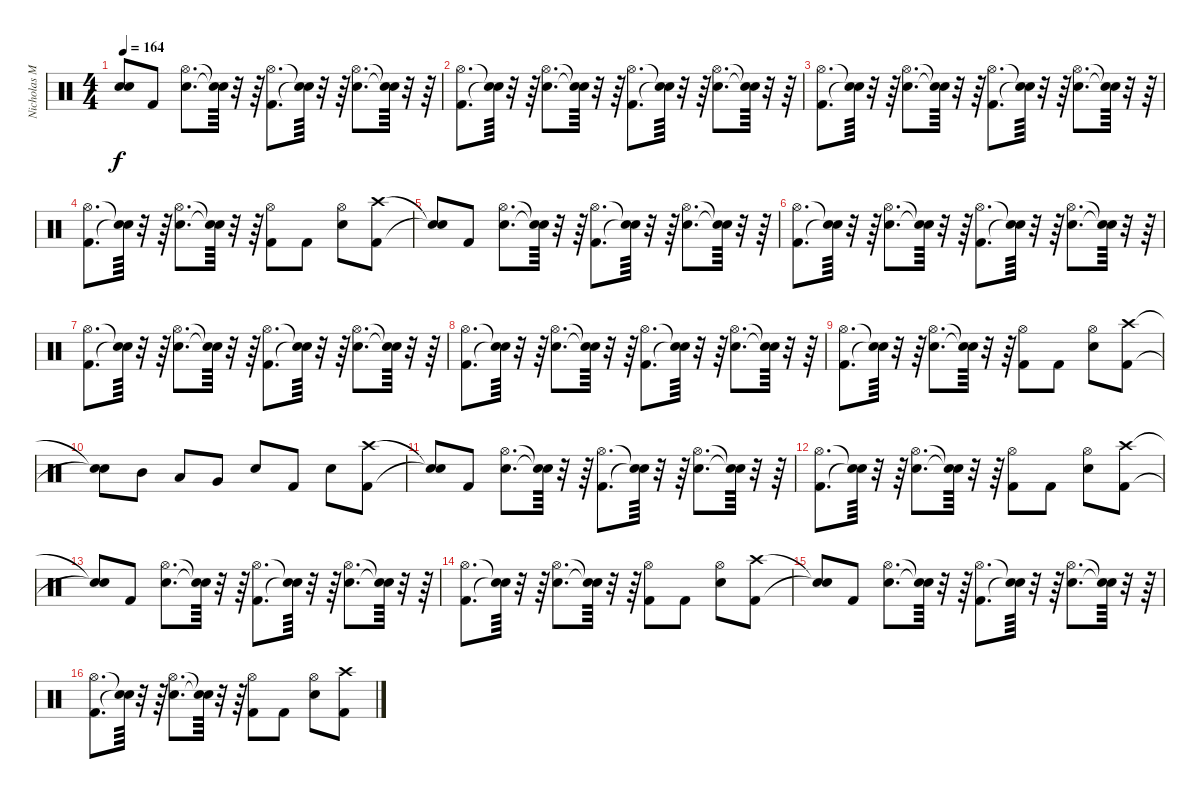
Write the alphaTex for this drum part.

\track ("Nicholas McBrain (Drums)" "Nicholas M") {instrument percussion}
\staff {score}
\articulation defaults
\ts (4 4)
\tempo 164
\clef neutral
\ks c
("Snare (hit)"{t} "Snare (hit)"{t}).8{dy f} "Kick (hit) 2".8 ("Snare (hit) 2" "Hi-Hat (open)").8{d} ("Snare (hit)"{t} "Snare (hit)"{t}).64 r.32 r.64 ("Kick (hit) 2" "Hi-Hat (open)").8{d} ("Snare (hit)"{t} "Snare (hit)"{t}).64 r.32 r.64 ("Snare (hit) 2" "Hi-Hat (open)").8{d} ("Snare (hit)"{t} "Snare (hit)"{t}).64 r.32 r.64 |
("Kick (hit) 2" "Hi-Hat (open)").8{d} ("Snare (hit)"{t} "Snare (hit)"{t}).64 r.32 r.64 ("Snare (hit) 2" "Hi-Hat (open)").8{d} ("Snare (hit)"{t} "Snare (hit)"{t}).64 r.32 r.64 ("Kick (hit) 2" "Hi-Hat (open)").8{d} ("Snare (hit)"{t} "Snare (hit)"{t}).64 r.32 r.64 ("Snare (hit) 2" "Hi-Hat (open)").8{d} ("Snare (hit)"{t} "Snare (hit)"{t}).64 r.32 r.64 |
("Kick (hit) 2" "Hi-Hat (open)").8{d} ("Snare (hit)"{t} "Snare (hit)"{t}).64 r.32 r.64 ("Snare (hit) 2" "Hi-Hat (open)").8{d} ("Snare (hit)"{t} "Snare (hit)"{t}).64 r.32 r.64 ("Kick (hit) 2" "Hi-Hat (open)").8{d} ("Snare (hit)"{t} "Snare (hit)"{t}).64 r.32 r.64 ("Snare (hit) 2" "Hi-Hat (open)").8{d} ("Snare (hit)"{t} "Snare (hit)"{t}).64 r.32 r.64 |
("Kick (hit) 2" "Hi-Hat (open)").8{d} ("Snare (hit)"{t} "Snare (hit)"{t}).64 r.32 r.64 ("Snare (hit) 2" "Hi-Hat (open)").8{d} ("Snare (hit)"{t} "Snare (hit)"{t}).64 r.32 r.64 ("Kick (hit) 2" "Hi-Hat (open)").8 "Kick (hit) 2".8 ("Snare (hit) 2" "Hi-Hat (open)").8 ("Kick (hit) 2" "Crash high (hit)").8 |
("Snare (hit)"{t} "Snare (hit)"{t}).8 "Kick (hit) 2".8 ("Snare (hit) 2" "Hi-Hat (open)").8{d} ("Snare (hit)"{t} "Snare (hit)"{t}).64 r.32 r.64 ("Kick (hit) 2" "Hi-Hat (open)").8{d} ("Snare (hit)"{t} "Snare (hit)"{t}).64 r.32 r.64 ("Snare (hit) 2" "Hi-Hat (open)").8{d} ("Snare (hit)"{t} "Snare (hit)"{t}).64 r.32 r.64 |
("Kick (hit) 2" "Hi-Hat (open)").8{d} ("Snare (hit)"{t} "Snare (hit)"{t}).64 r.32 r.64 ("Snare (hit) 2" "Hi-Hat (open)").8{d} ("Snare (hit)"{t} "Snare (hit)"{t}).64 r.32 r.64 ("Kick (hit) 2" "Hi-Hat (open)").8{d} ("Snare (hit)"{t} "Snare (hit)"{t}).64 r.32 r.64 ("Snare (hit) 2" "Hi-Hat (open)").8{d} ("Snare (hit)"{t} "Snare (hit)"{t}).64 r.32 r.64 |
("Kick (hit) 2" "Hi-Hat (open)").8{d} ("Snare (hit)"{t} "Snare (hit)"{t}).64 r.32 r.64 ("Snare (hit) 2" "Hi-Hat (open)").8{d} ("Snare (hit)"{t} "Snare (hit)"{t}).64 r.32 r.64 ("Kick (hit) 2" "Hi-Hat (open)").8{d} ("Snare (hit)"{t} "Snare (hit)"{t}).64 r.32 r.64 ("Snare (hit) 2" "Hi-Hat (open)").8{d} ("Snare (hit)"{t} "Snare (hit)"{t}).64 r.32 r.64 |
("Kick (hit) 2" "Hi-Hat (open)").8{d} ("Snare (hit)"{t} "Snare (hit)"{t}).64 r.32 r.64 ("Snare (hit) 2" "Hi-Hat (open)").8{d} ("Snare (hit)"{t} "Snare (hit)"{t}).64 r.32 r.64 ("Kick (hit) 2" "Hi-Hat (open)").8{d} ("Snare (hit)"{t} "Snare (hit)"{t}).64 r.32 r.64 ("Snare (hit) 2" "Hi-Hat (open)").8{d} ("Snare (hit)"{t} "Snare (hit)"{t}).64 r.32 r.64 |
("Kick (hit) 2" "Hi-Hat (open)").8{d} ("Snare (hit)"{t} "Snare (hit)"{t}).64 r.32 r.64 ("Snare (hit) 2" "Hi-Hat (open)").8{d} ("Snare (hit)"{t} "Snare (hit)"{t}).64 r.32 r.64 ("Kick (hit) 2" "Hi-Hat (open)").8 "Kick (hit) 2".8 ("Snare (hit) 2" "Hi-Hat (open)").8 ("Kick (hit) 2" "Crash high (hit)").8 |
("Snare (hit)"{t} "Snare (hit)"{t}).8 "Mid Tom (hit)".8 "Low Tom (hit)".8 "Very Low Tom (hit)".8 "Snare (hit) 2".8 "Kick (hit) 2".8 "Snare (hit) 2".8 ("Kick (hit) 2" "Crash high (hit)").8 |
("Snare (hit)"{t} "Snare (hit)"{t}).8 "Kick (hit) 2".8 ("Snare (hit) 2" "Hi-Hat (open)").8{d} ("Snare (hit)"{t} "Snare (hit)"{t}).64 r.32 r.64 ("Kick (hit) 2" "Hi-Hat (open)").8{d} ("Snare (hit)"{t} "Snare (hit)"{t}).64 r.32 r.64 ("Snare (hit) 2" "Hi-Hat (open)").8{d} ("Snare (hit)"{t} "Snare (hit)"{t}).64 r.32 r.64 |
("Kick (hit) 2" "Hi-Hat (open)").8{d} ("Snare (hit)"{t} "Snare (hit)"{t}).64 r.32 r.64 ("Snare (hit) 2" "Hi-Hat (open)").8{d} ("Snare (hit)"{t} "Snare (hit)"{t}).64 r.32 r.64 ("Kick (hit) 2" "Hi-Hat (open)").8 "Kick (hit) 2".8 ("Snare (hit) 2" "Hi-Hat (open)").8 ("Kick (hit) 2" "Crash high (hit)").8 |
("Snare (hit)"{t} "Snare (hit)"{t}).8 "Kick (hit) 2".8 ("Snare (hit) 2" "Hi-Hat (open)").8{d} ("Snare (hit)"{t} "Snare (hit)"{t}).64 r.32 r.64 ("Kick (hit) 2" "Hi-Hat (open)").8{d} ("Snare (hit)"{t} "Snare (hit)"{t}).64 r.32 r.64 ("Snare (hit) 2" "Hi-Hat (open)").8{d} ("Snare (hit)"{t} "Snare (hit)"{t}).64 r.32 r.64 |
("Kick (hit) 2" "Hi-Hat (open)").8{d} ("Snare (hit)"{t} "Snare (hit)"{t}).64 r.32 r.64 ("Snare (hit) 2" "Hi-Hat (open)").8{d} ("Snare (hit)"{t} "Snare (hit)"{t}).64 r.32 r.64 ("Kick (hit) 2" "Hi-Hat (open)").8 "Kick (hit) 2".8 ("Snare (hit) 2" "Hi-Hat (open)").8 ("Kick (hit) 2" "Crash high (hit)").8 |
("Snare (hit)"{t} "Snare (hit)"{t}).8 "Kick (hit) 2".8 ("Snare (hit) 2" "Hi-Hat (open)").8{d} ("Snare (hit)"{t} "Snare (hit)"{t}).64 r.32 r.64 ("Kick (hit) 2" "Hi-Hat (open)").8{d} ("Snare (hit)"{t} "Snare (hit)"{t}).64 r.32 r.64 ("Snare (hit) 2" "Hi-Hat (open)").8{d} ("Snare (hit)"{t} "Snare (hit)"{t}).64 r.32 r.64 |
("Kick (hit) 2" "Hi-Hat (open)").8{d} ("Snare (hit)"{t} "Snare (hit)"{t}).64 r.32 r.64 ("Snare (hit) 2" "Hi-Hat (open)").8{d} ("Snare (hit)"{t} "Snare (hit)"{t}).64 r.32 r.64 ("Kick (hit) 2" "Hi-Hat (open)").8 "Kick (hit) 2".8 ("Snare (hit) 2" "Hi-Hat (open)").8 ("Kick (hit) 2" "Crash high (hit)").8
